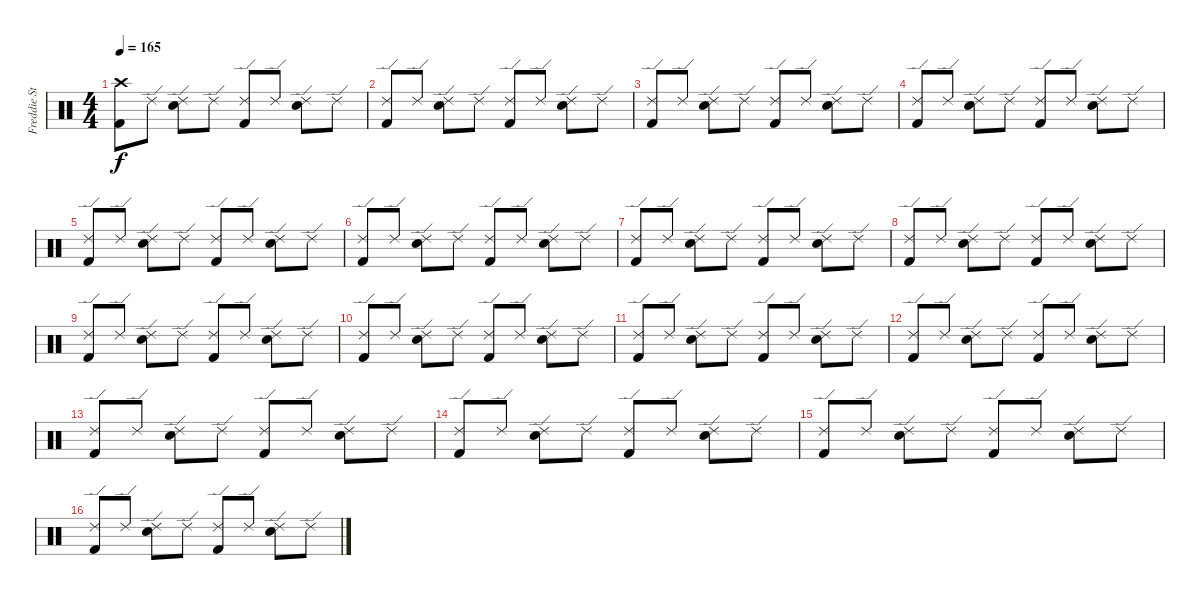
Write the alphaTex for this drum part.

\track ("Freddie Strauks" "Freddie St") {instrument percussion}
\staff {score}
\articulation defaults
\ts (4 4)
\tempo 165
\clef neutral
\ks c
("Crash high (hit)" "Kick (hit) 2").8{dy f volume 13} "Ride (edge) 2".8 ("Ride (edge) 2" "Snare (hit) 2").8 "Ride (edge) 2".8 ("Ride (edge) 2" "Kick (hit) 2").8 "Ride (edge) 2".8 ("Ride (edge) 2" "Snare (hit) 2").8 "Ride (edge) 2".8 |
("Ride (edge) 2" "Kick (hit) 2").8 "Ride (edge) 2".8 ("Ride (edge) 2" "Snare (hit) 2").8 "Ride (edge) 2".8 ("Ride (edge) 2" "Kick (hit) 2").8 "Ride (edge) 2".8 ("Ride (edge) 2" "Snare (hit) 2").8 "Ride (edge) 2".8 |
("Ride (edge) 2" "Kick (hit) 2").8 "Ride (edge) 2".8 ("Ride (edge) 2" "Snare (hit) 2").8 "Ride (edge) 2".8 ("Ride (edge) 2" "Kick (hit) 2").8 "Ride (edge) 2".8 ("Ride (edge) 2" "Snare (hit) 2").8 "Ride (edge) 2".8 |
("Ride (edge) 2" "Kick (hit) 2").8 "Ride (edge) 2".8 ("Ride (edge) 2" "Snare (hit) 2").8 "Ride (edge) 2".8 ("Ride (edge) 2" "Kick (hit) 2").8 "Ride (edge) 2".8 ("Ride (edge) 2" "Snare (hit) 2").8 "Ride (edge) 2".8 |
("Ride (edge) 2" "Kick (hit) 2").8 "Ride (edge) 2".8 ("Ride (edge) 2" "Snare (hit) 2").8 "Ride (edge) 2".8 ("Ride (edge) 2" "Kick (hit) 2").8 "Ride (edge) 2".8 ("Ride (edge) 2" "Snare (hit) 2").8 "Ride (edge) 2".8 |
("Ride (edge) 2" "Kick (hit) 2").8 "Ride (edge) 2".8 ("Ride (edge) 2" "Snare (hit) 2").8 "Ride (edge) 2".8 ("Ride (edge) 2" "Kick (hit) 2").8 "Ride (edge) 2".8 ("Ride (edge) 2" "Snare (hit) 2").8 "Ride (edge) 2".8 |
("Ride (edge) 2" "Kick (hit) 2").8 "Ride (edge) 2".8 ("Ride (edge) 2" "Snare (hit) 2").8 "Ride (edge) 2".8 ("Ride (edge) 2" "Kick (hit) 2").8 "Ride (edge) 2".8 ("Ride (edge) 2" "Snare (hit) 2").8 "Ride (edge) 2".8 |
("Ride (edge) 2" "Kick (hit) 2").8 "Ride (edge) 2".8 ("Ride (edge) 2" "Snare (hit) 2").8 "Ride (edge) 2".8 ("Ride (edge) 2" "Kick (hit) 2").8 "Ride (edge) 2".8 ("Ride (edge) 2" "Snare (hit) 2").8 "Ride (edge) 2".8 |
("Ride (edge) 2" "Kick (hit) 2").8 "Ride (edge) 2".8 ("Ride (edge) 2" "Snare (hit) 2").8 "Ride (edge) 2".8 ("Ride (edge) 2" "Kick (hit) 2").8 "Ride (edge) 2".8 ("Ride (edge) 2" "Snare (hit) 2").8 "Ride (edge) 2".8 |
("Ride (edge) 2" "Kick (hit) 2").8 "Ride (edge) 2".8 ("Ride (edge) 2" "Snare (hit) 2").8 "Ride (edge) 2".8 ("Ride (edge) 2" "Kick (hit) 2").8 "Ride (edge) 2".8 ("Ride (edge) 2" "Snare (hit) 2").8 "Ride (edge) 2".8 |
("Ride (edge) 2" "Kick (hit) 2").8 "Ride (edge) 2".8 ("Ride (edge) 2" "Snare (hit) 2").8 "Ride (edge) 2".8 ("Ride (edge) 2" "Kick (hit) 2").8 "Ride (edge) 2".8 ("Ride (edge) 2" "Snare (hit) 2").8 "Ride (edge) 2".8 |
("Ride (edge) 2" "Kick (hit) 2").8 "Ride (edge) 2".8 ("Ride (edge) 2" "Snare (hit) 2").8 "Ride (edge) 2".8 ("Ride (edge) 2" "Kick (hit) 2").8 "Ride (edge) 2".8 ("Ride (edge) 2" "Snare (hit) 2").8 "Ride (edge) 2".8 |
("Ride (edge) 2" "Kick (hit) 2").8 "Ride (edge) 2".8 ("Ride (edge) 2" "Snare (hit) 2").8 "Ride (edge) 2".8 ("Ride (edge) 2" "Kick (hit) 2").8 "Ride (edge) 2".8 ("Ride (edge) 2" "Snare (hit) 2").8 "Ride (edge) 2".8 |
("Ride (edge) 2" "Kick (hit) 2").8 "Ride (edge) 2".8 ("Ride (edge) 2" "Snare (hit) 2").8 "Ride (edge) 2".8 ("Ride (edge) 2" "Kick (hit) 2").8 "Ride (edge) 2".8 ("Ride (edge) 2" "Snare (hit) 2").8 "Ride (edge) 2".8 |
("Ride (edge) 2" "Kick (hit) 2").8 "Ride (edge) 2".8 ("Ride (edge) 2" "Snare (hit) 2").8 "Ride (edge) 2".8 ("Ride (edge) 2" "Kick (hit) 2").8 "Ride (edge) 2".8 ("Ride (edge) 2" "Snare (hit) 2").8 "Ride (edge) 2".8 |
("Ride (edge) 2" "Kick (hit) 2").8 "Ride (edge) 2".8 ("Ride (edge) 2" "Snare (hit) 2").8 "Ride (edge) 2".8 ("Ride (edge) 2" "Kick (hit) 2").8 "Ride (edge) 2".8 ("Ride (edge) 2" "Snare (hit) 2").8 "Ride (edge) 2".8
